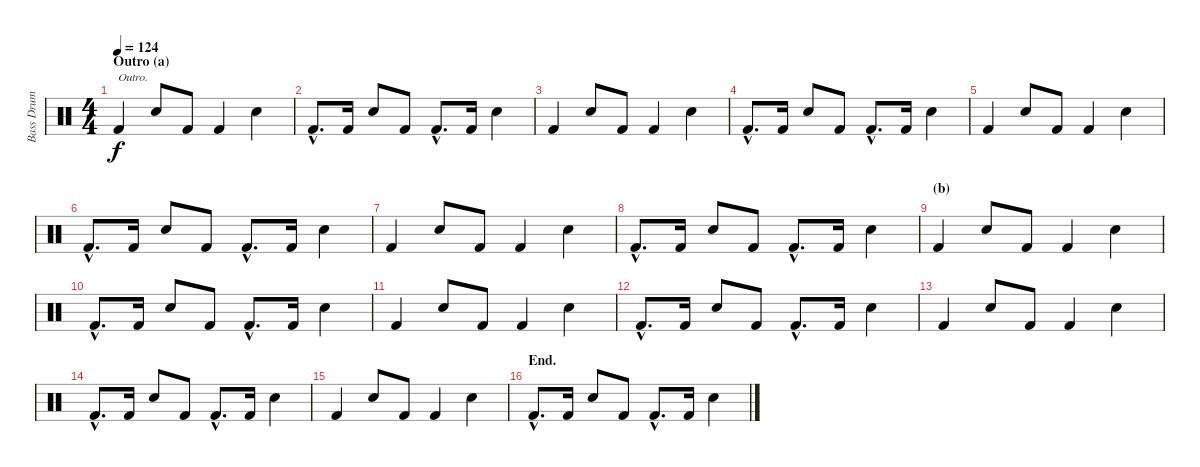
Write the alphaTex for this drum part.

\track ("Bass Drum and Snares" "Bass Drum ") {instrument percussion}
\staff {score}
\articulation defaults
\ts (4 4)
\section ("" "Outro (a)")
\tempo 124
\clef neutral
\ks c "Kick (hit) 2".4{txt "Outro." dy f} "Snare (hit) 2".8 "Kick (hit) 2".8 "Kick (hit) 2".4 "Snare (hit) 2".4
|
"Kick (hit) 2"{hac}.8{d} "Kick (hit) 2".16 "Snare (hit) 2".8 "Kick (hit) 2".8 "Kick (hit) 2"{hac}.8{d} "Kick (hit) 2".16 "Snare (hit) 2".4 |
"Kick (hit) 2".4 "Snare (hit) 2".8 "Kick (hit) 2".8 "Kick (hit) 2".4 "Snare (hit) 2".4 |
"Kick (hit) 2"{hac}.8{d} "Kick (hit) 2".16 "Snare (hit) 2".8 "Kick (hit) 2".8 "Kick (hit) 2"{hac}.8{d} "Kick (hit) 2".16 "Snare (hit) 2".4 |
"Kick (hit) 2".4 "Snare (hit) 2".8 "Kick (hit) 2".8 "Kick (hit) 2".4 "Snare (hit) 2".4 |
"Kick (hit) 2"{hac}.8{d} "Kick (hit) 2".16 "Snare (hit) 2".8 "Kick (hit) 2".8 "Kick (hit) 2"{hac}.8{d} "Kick (hit) 2".16 "Snare (hit) 2".4 |
"Kick (hit) 2".4 "Snare (hit) 2".8 "Kick (hit) 2".8 "Kick (hit) 2".4 "Snare (hit) 2".4 |
"Kick (hit) 2"{hac}.8{d} "Kick (hit) 2".16 "Snare (hit) 2".8 "Kick (hit) 2".8 "Kick (hit) 2"{hac}.8{d} "Kick (hit) 2".16 "Snare (hit) 2".4 |
\section ("" "(b)")
"Kick (hit) 2".4 "Snare (hit) 2".8 "Kick (hit) 2".8 "Kick (hit) 2".4 "Snare (hit) 2".4 |
"Kick (hit) 2"{hac}.8{d} "Kick (hit) 2".16 "Snare (hit) 2".8 "Kick (hit) 2".8 "Kick (hit) 2"{hac}.8{d} "Kick (hit) 2".16 "Snare (hit) 2".4 |
"Kick (hit) 2".4 "Snare (hit) 2".8 "Kick (hit) 2".8 "Kick (hit) 2".4 "Snare (hit) 2".4 |
"Kick (hit) 2"{hac}.8{d} "Kick (hit) 2".16 "Snare (hit) 2".8 "Kick (hit) 2".8 "Kick (hit) 2"{hac}.8{d} "Kick (hit) 2".16 "Snare (hit) 2".4 |
"Kick (hit) 2".4 "Snare (hit) 2".8 "Kick (hit) 2".8 "Kick (hit) 2".4 "Snare (hit) 2".4 |
"Kick (hit) 2"{hac}.8{d} "Kick (hit) 2".16 "Snare (hit) 2".8 "Kick (hit) 2".8 "Kick (hit) 2"{hac}.8{d} "Kick (hit) 2".16 "Snare (hit) 2".4 |
"Kick (hit) 2".4 "Snare (hit) 2".8 "Kick (hit) 2".8 "Kick (hit) 2".4 "Snare (hit) 2".4 |
\section ("" "End.")
"Kick (hit) 2"{hac}.8{d} "Kick (hit) 2".16 "Snare (hit) 2".8 "Kick (hit) 2".8 "Kick (hit) 2"{hac}.8{d} "Kick (hit) 2".16 "Snare (hit) 2".4
